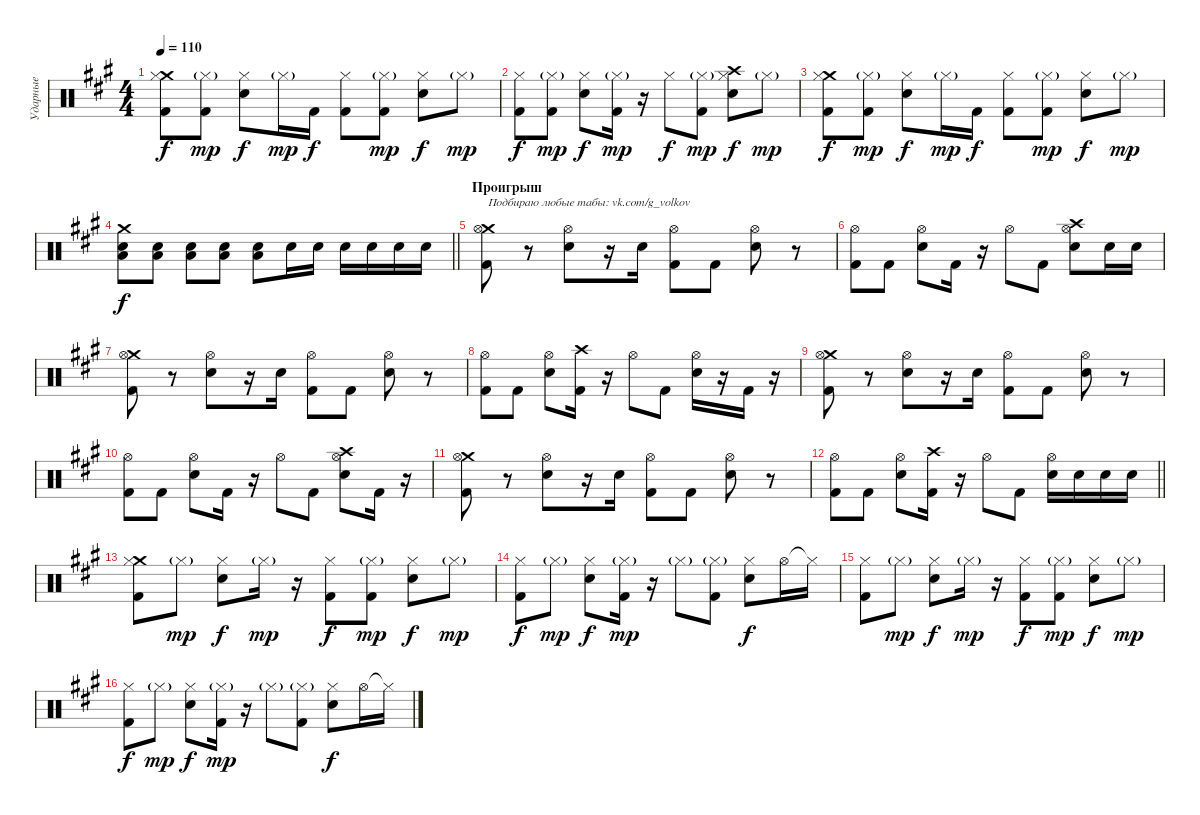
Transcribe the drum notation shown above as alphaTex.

\track ("Ударные" "Ударные") {instrument percussion}
\staff {score}
\articulation defaults
\ts (4 4)
\tempo 110
\clef neutral
\ks f#minor
("Crash medium (hit)" "Kick (hit) 2" "Hi-Hat (closed)").8{dy f} ("Kick (hit) 2" "Hi-Hat (closed)"{g}).8{dy mp} ("Electric Snare (hit)" "Hi-Hat (closed)").8{dy f} "Hi-Hat (closed)"{g}.16{dy mp} "Kick (hit) 2".16{dy f} ("Kick (hit) 2" "Hi-Hat (closed)").8 ("Kick (hit) 2" "Hi-Hat (closed)"{g}).8{dy mp} ("Electric Snare (hit)" "Hi-Hat (closed)").8{dy f} "Hi-Hat (closed)"{g}.8{dy mp} |
("Kick (hit) 2" "Hi-Hat (closed)").8{dy f} ("Kick (hit) 2" "Hi-Hat (closed)"{g}).8{dy mp} ("Electric Snare (hit)" "Hi-Hat (closed)").8{dy f} ("Kick (hit) 2" "Hi-Hat (closed)"{g}).16{dy mp} r.16 "Hi-Hat (closed)".8{dy f} ("Kick (hit) 2" "Hi-Hat (closed)"{g}).8{dy mp} ("Crash high (hit)" "Electric Snare (hit)" "Hi-Hat (closed)").8{dy f} "Hi-Hat (closed)"{g}.8{dy mp} |
("Crash medium (hit)" "Kick (hit) 2" "Hi-Hat (closed)").8{dy f} ("Kick (hit) 2" "Hi-Hat (closed)"{g}).8{dy mp} ("Electric Snare (hit)" "Hi-Hat (closed)").8{dy f} "Hi-Hat (closed)"{g}.16{dy mp} "Kick (hit) 2".16{dy f} ("Kick (hit) 2" "Hi-Hat (closed)").8 ("Kick (hit) 2" "Hi-Hat (closed)"{g}).8{dy mp} ("Electric Snare (hit)" "Hi-Hat (closed)").8{dy f} "Hi-Hat (closed)"{g}.8{dy mp} |
\barLineRight lightlight
("Low Tom (hit)" "Electric Snare (hit)" "Crash medium (hit)").8{dy f} ("Low Tom (hit)" "Electric Snare (hit)").8 ("Low Tom (hit)" "Electric Snare (hit)").8 ("Low Tom (hit)" "Electric Snare (hit)").8 ("Low Tom (hit)" "Electric Snare (hit)").8 "Electric Snare (hit)".16 "Electric Snare (hit)".16 "Electric Snare (hit)".16 "Electric Snare (hit)".16 "Electric Snare (hit)".16 "Electric Snare (hit)".16 |
\section ("" "Проигрыш")
("Crash medium (hit)" "Kick (hit) 2" "Hi-Hat (open)").8{txt "Подбираю любые табы: vk.com/g_volkov"} r.8 ("Electric Snare (hit)" "Hi-Hat (open)").8 r.16 "Electric Snare (hit)".16 ("Kick (hit) 2" "Hi-Hat (open)").8 "Kick (hit) 2".8 ("Electric Snare (hit)" "Hi-Hat (open)").8 r.8 |
("Kick (hit) 2" "Hi-Hat (open)").8 "Kick (hit) 2".8 ("Electric Snare (hit)" "Hi-Hat (open)").8 "Kick (hit) 2".16 r.16 "Hi-Hat (open)".8 "Kick (hit) 2".8 ("Crash high (hit)" "Electric Snare (hit)" "Hi-Hat (open)").8 "Electric Snare (hit)".16 "Electric Snare (hit)".16 |
("Crash medium (hit)" "Kick (hit) 2" "Hi-Hat (open)").8 r.8 ("Electric Snare (hit)" "Hi-Hat (open)").8 r.16 "Electric Snare (hit)".16 ("Kick (hit) 2" "Hi-Hat (open)").8 "Kick (hit) 2".8 ("Electric Snare (hit)" "Hi-Hat (open)").8 r.8 |
("Kick (hit) 2" "Hi-Hat (open)").8 "Kick (hit) 2".8 ("Electric Snare (hit)" "Hi-Hat (open)").8 ("Crash high (hit)" "Kick (hit) 2").16 r.16 "Hi-Hat (open)".8 "Kick (hit) 2".8 ("Electric Snare (hit)" "Hi-Hat (open)").16 r.16 "Kick (hit) 2".16 r.16 |
("Crash medium (hit)" "Kick (hit) 2" "Hi-Hat (open)").8 r.8 ("Electric Snare (hit)" "Hi-Hat (open)").8 r.16 "Electric Snare (hit)".16 ("Kick (hit) 2" "Hi-Hat (open)").8 "Kick (hit) 2".8 ("Electric Snare (hit)" "Hi-Hat (open)").8 r.8 |
("Kick (hit) 2" "Hi-Hat (open)").8 "Kick (hit) 2".8 ("Electric Snare (hit)" "Hi-Hat (open)").8 "Kick (hit) 2".16 r.16 "Hi-Hat (open)".8 "Kick (hit) 2".8 ("Crash high (hit)" "Electric Snare (hit)" "Hi-Hat (open)").8 "Kick (hit) 2".16 r.16 |
("Crash medium (hit)" "Kick (hit) 2" "Hi-Hat (open)").8 r.8 ("Electric Snare (hit)" "Hi-Hat (open)").8 r.16 "Electric Snare (hit)".16 ("Kick (hit) 2" "Hi-Hat (open)").8 "Kick (hit) 2".8 ("Electric Snare (hit)" "Hi-Hat (open)").8 r.8 |
\barLineRight lightlight
("Kick (hit) 2" "Hi-Hat (open)").8 "Kick (hit) 2".8 ("Electric Snare (hit)" "Hi-Hat (open)").8 ("Crash high (hit)" "Kick (hit) 2").16 r.16 "Hi-Hat (open)".8 "Kick (hit) 2".8 ("Electric Snare (hit)" "Hi-Hat (open)").16 "Electric Snare (hit)".16 "Electric Snare (hit)".16 "Electric Snare (hit)".16 |
\section ("" "")
("Crash medium (hit)" "Kick (hit) 2" "Hi-Hat (closed)").8 "Hi-Hat (closed)"{g}.8{dy mp} ("Electric Snare (hit)" "Hi-Hat (closed)").8{dy f} "Hi-Hat (closed)"{g}.16{dy mp} r.16 ("Kick (hit) 2" "Hi-Hat (closed)").8{dy f} ("Kick (hit) 2" "Hi-Hat (closed)"{g}).8{dy mp} ("Electric Snare (hit)" "Hi-Hat (closed)").8{dy f} "Hi-Hat (closed)"{g}.8{dy mp} |
("Kick (hit) 2" "Hi-Hat (closed)").8{dy f} "Hi-Hat (closed)"{g}.8{dy mp} ("Electric Snare (hit)" "Hi-Hat (closed)").8{dy f} ("Kick (hit) 2" "Hi-Hat (closed)"{g}).16{dy mp} r.16 "Hi-Hat (closed)"{g}.8 ("Kick (hit) 2" "Hi-Hat (closed)"{g}).8 ("Electric Snare (hit)" "Hi-Hat (closed)").8{dy f} "Hi-Hat (open)".16 "Hi-Hat (closed)"{t}.16 |
("Kick (hit) 2" "Hi-Hat (closed)").8 "Hi-Hat (closed)"{g}.8{dy mp} ("Electric Snare (hit)" "Hi-Hat (closed)").8{dy f} "Hi-Hat (closed)"{g}.16{dy mp} r.16 ("Kick (hit) 2" "Hi-Hat (closed)").8{dy f} ("Kick (hit) 2" "Hi-Hat (closed)"{g}).8{dy mp} ("Electric Snare (hit)" "Hi-Hat (closed)").8{dy f} "Hi-Hat (closed)"{g}.8{dy mp} |
("Kick (hit) 2" "Hi-Hat (closed)").8{dy f} "Hi-Hat (closed)"{g}.8{dy mp} ("Electric Snare (hit)" "Hi-Hat (closed)").8{dy f} ("Kick (hit) 2" "Hi-Hat (closed)"{g}).16{dy mp} r.16 "Hi-Hat (closed)"{g}.8 ("Kick (hit) 2" "Hi-Hat (closed)"{g}).8 ("Electric Snare (hit)" "Hi-Hat (closed)").8{dy f} "Hi-Hat (open)".16 "Hi-Hat (closed)"{t}.16
